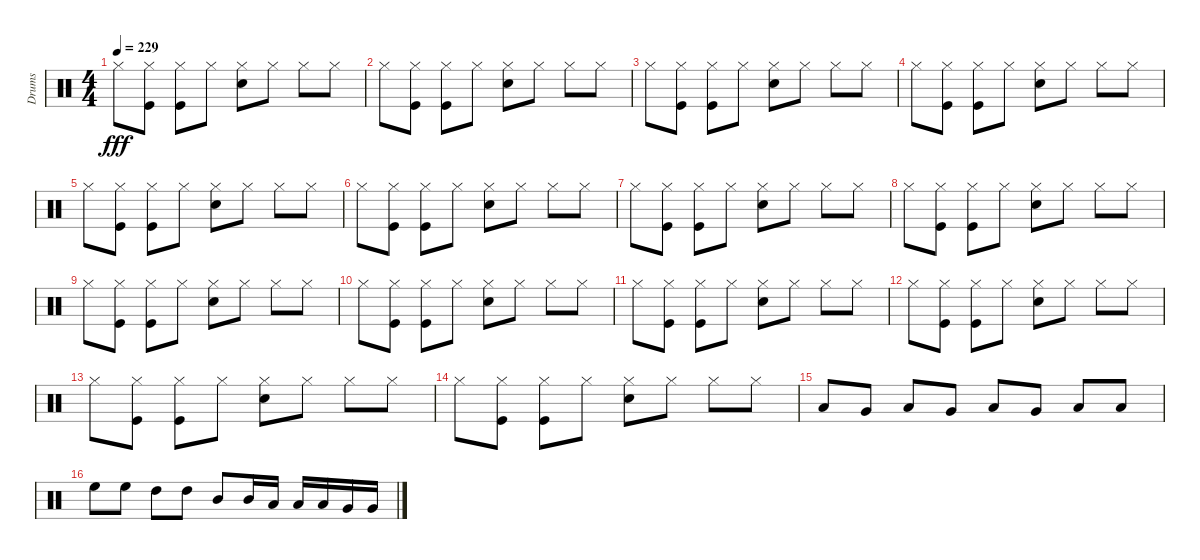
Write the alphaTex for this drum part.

\track ("Drums" "Drums") {instrument percussion}
\staff {score}
\articulation defaults
\ts (4 4)
\tempo 229
\clef neutral
\ks c "Hi-Hat (closed)".8{dy fff}
("Kick (hit)" "Hi-Hat (closed)").8 ("Hi-Hat (closed)" "Kick (hit)").8 "Hi-Hat (closed)".8 ("Snare (hit) 2" "Hi-Hat (closed)").8 "Hi-Hat (closed)".8 "Hi-Hat (closed)".8 "Hi-Hat (closed)".8 |
"Hi-Hat (closed)".8 ("Kick (hit)" "Hi-Hat (closed)").8 ("Hi-Hat (closed)" "Kick (hit)").8 "Hi-Hat (closed)".8 ("Snare (hit) 2" "Hi-Hat (closed)").8 "Hi-Hat (closed)".8 "Hi-Hat (closed)".8 "Hi-Hat (closed)".8 |
"Hi-Hat (closed)".8 ("Kick (hit)" "Hi-Hat (closed)").8 ("Hi-Hat (closed)" "Kick (hit)").8 "Hi-Hat (closed)".8 ("Snare (hit) 2" "Hi-Hat (closed)").8 "Hi-Hat (closed)".8 "Hi-Hat (closed)".8 "Hi-Hat (closed)".8 |
"Hi-Hat (closed)".8 ("Kick (hit)" "Hi-Hat (closed)").8 ("Hi-Hat (closed)" "Kick (hit)").8 "Hi-Hat (closed)".8 ("Snare (hit) 2" "Hi-Hat (closed)").8 "Hi-Hat (closed)".8 "Hi-Hat (closed)".8 "Hi-Hat (closed)".8 |
"Hi-Hat (closed)".8 ("Kick (hit)" "Hi-Hat (closed)").8 ("Hi-Hat (closed)" "Kick (hit)").8 "Hi-Hat (closed)".8 ("Snare (hit) 2" "Hi-Hat (closed)").8 "Hi-Hat (closed)".8 "Hi-Hat (closed)".8 "Hi-Hat (closed)".8 |
"Hi-Hat (closed)".8 ("Kick (hit)" "Hi-Hat (closed)").8 ("Hi-Hat (closed)" "Kick (hit)").8 "Hi-Hat (closed)".8 ("Snare (hit) 2" "Hi-Hat (closed)").8 "Hi-Hat (closed)".8 "Hi-Hat (closed)".8 "Hi-Hat (closed)".8 |
"Hi-Hat (closed)".8 ("Kick (hit)" "Hi-Hat (closed)").8 ("Hi-Hat (closed)" "Kick (hit)").8 "Hi-Hat (closed)".8 ("Snare (hit) 2" "Hi-Hat (closed)").8 "Hi-Hat (closed)".8 "Hi-Hat (closed)".8 "Hi-Hat (closed)".8 |
"Hi-Hat (closed)".8 ("Kick (hit)" "Hi-Hat (closed)").8 ("Hi-Hat (closed)" "Kick (hit)").8 "Hi-Hat (closed)".8 ("Snare (hit) 2" "Hi-Hat (closed)").8 "Hi-Hat (closed)".8 "Hi-Hat (closed)".8 "Hi-Hat (closed)".8 |
"Hi-Hat (closed)".8 ("Kick (hit)" "Hi-Hat (closed)").8 ("Hi-Hat (closed)" "Kick (hit)").8 "Hi-Hat (closed)".8 ("Snare (hit) 2" "Hi-Hat (closed)").8 "Hi-Hat (closed)".8 "Hi-Hat (closed)".8 "Hi-Hat (closed)".8 |
"Hi-Hat (closed)".8 ("Kick (hit)" "Hi-Hat (closed)").8 ("Hi-Hat (closed)" "Kick (hit)").8 "Hi-Hat (closed)".8 ("Snare (hit) 2" "Hi-Hat (closed)").8 "Hi-Hat (closed)".8 "Hi-Hat (closed)".8 "Hi-Hat (closed)".8 |
"Hi-Hat (closed)".8 ("Kick (hit)" "Hi-Hat (closed)").8 ("Hi-Hat (closed)" "Kick (hit)").8 "Hi-Hat (closed)".8 ("Snare (hit) 2" "Hi-Hat (closed)").8 "Hi-Hat (closed)".8 "Hi-Hat (closed)".8 "Hi-Hat (closed)".8 |
"Hi-Hat (closed)".8 ("Kick (hit)" "Hi-Hat (closed)").8 ("Hi-Hat (closed)" "Kick (hit)").8 "Hi-Hat (closed)".8 ("Snare (hit) 2" "Hi-Hat (closed)").8 "Hi-Hat (closed)".8 "Hi-Hat (closed)".8 "Hi-Hat (closed)".8 |
"Hi-Hat (closed)".8 ("Kick (hit)" "Hi-Hat (closed)").8 ("Hi-Hat (closed)" "Kick (hit)").8 "Hi-Hat (closed)".8 ("Snare (hit) 2" "Hi-Hat (closed)").8 "Hi-Hat (closed)".8 "Hi-Hat (closed)".8 "Hi-Hat (closed)".8 |
"Hi-Hat (closed)".8 ("Kick (hit)" "Hi-Hat (closed)").8 ("Hi-Hat (closed)" "Kick (hit)").8 "Hi-Hat (closed)".8 ("Snare (hit) 2" "Hi-Hat (closed)").8 "Hi-Hat (closed)".8 "Hi-Hat (closed)".8 "Hi-Hat (closed)".8 |
"Low Tom (hit)".8 "Very Low Tom (hit)".8 "Low Tom (hit)".8 "Very Low Tom (hit)".8 "Low Tom (hit)".8 "Very Low Tom (hit)".8 "Low Tom (hit)".8 "Low Floor Tom (hit)".8 |
"High Floor Tom (hit)".8 "High Floor Tom (hit)".8 "High Tom (hit)".8 "High Tom (hit)".8 "Mid Tom (hit)".8 "Mid Tom (hit)".16 "Low Tom (hit)".16 "Low Tom (hit)".16 "Low Tom (hit)".16 "Very Low Tom (hit)".16 "Very Low Tom (hit)".16
